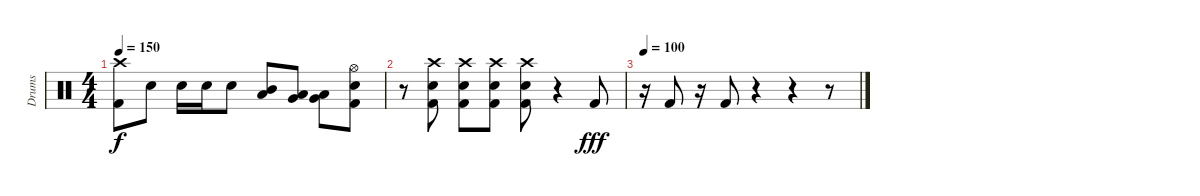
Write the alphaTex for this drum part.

\track ("Drums" "Drums") {instrument percussion}
\staff {score}
\articulation defaults
\ts (4 4)
\tempo 150
\clef neutral
\ks c
("Crash high (hit)" "Kick (hit) 2").8{dy f} "Snare (hit) 2".8 "Snare (hit) 2".16 "Snare (hit) 2".16 "Snare (hit) 2".8 ("Mid Tom (hit)" "Low Tom (hit)").8 ("Low Tom (hit)" "Very Low Tom (hit)").8 ("Very Low Tom (hit)" "Low Floor Tom (hit)").8 ("Hi-Hat (open)" "Snare (hit) 2" "Kick (hit) 2").8 |
r.8 ("Crash high (hit)" "Snare (hit) 2" "Kick (hit) 2").8 ("Crash high (hit)" "Snare (hit) 2" "Kick (hit) 2").8 ("Crash high (hit)" "Snare (hit) 2" "Kick (hit) 2").8 ("Crash high (hit)" "Snare (hit) 2" "Kick (hit) 2").8 r.4 "Kick (hit) 2".8{dy fff} |
\tempo 100
r.16 "Kick (hit) 2".8 r.16 "Kick (hit) 2".8 r.4 r.4 r.8
